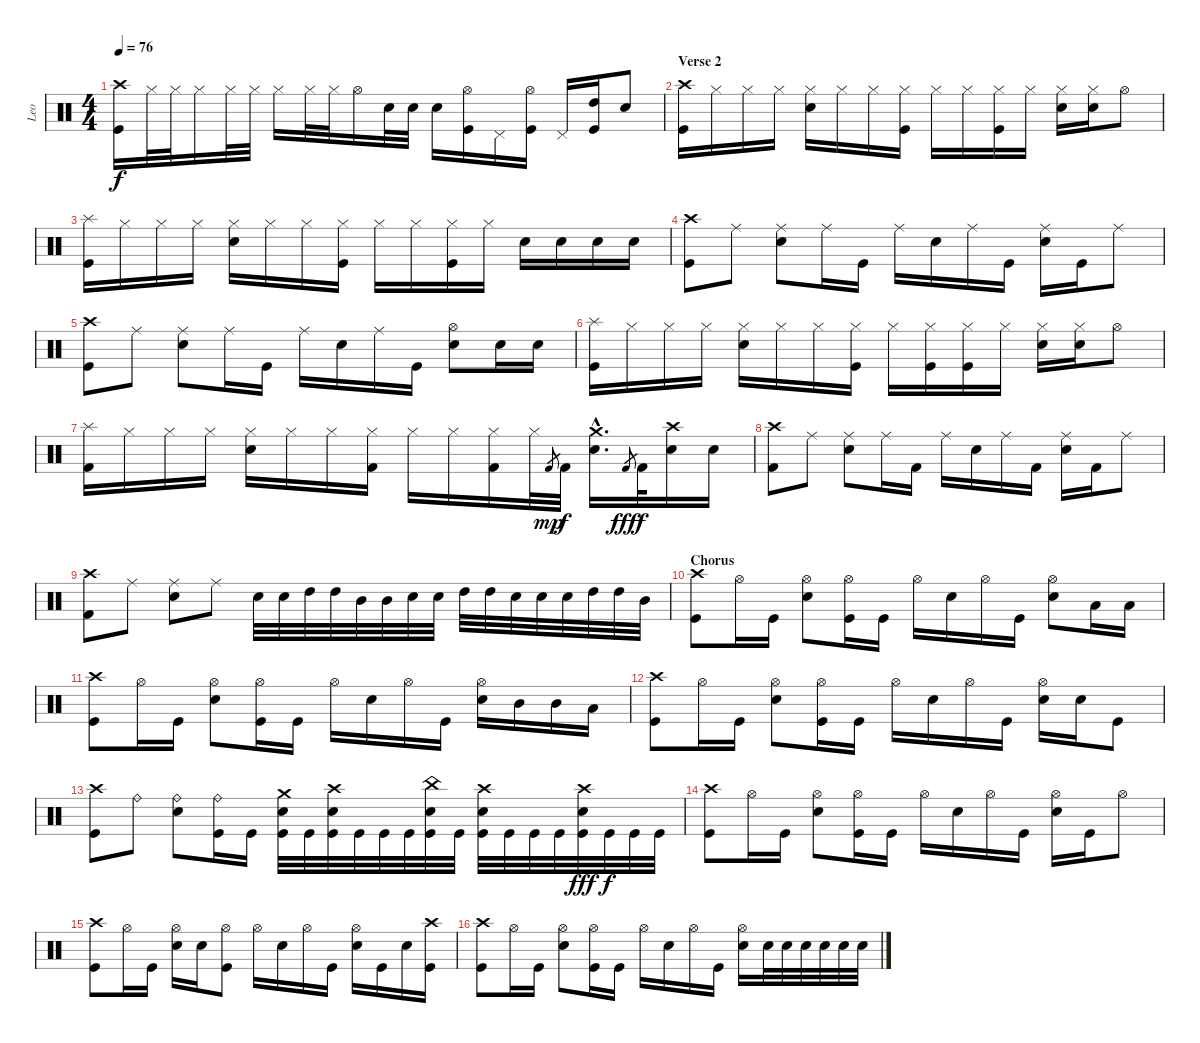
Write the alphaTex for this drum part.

\track ("Leo" "Leo") {instrument percussion}
\staff {score}
\articulation defaults
\ts (4 4)
\tempo 76
\clef neutral
\ks c
("Crash high (hit)" "Kick (hit)").16{dy f} "Hi-Hat (closed)".32 "Hi-Hat (closed)".32 "Hi-Hat (closed)".16 "Hi-Hat (closed)".32 "Hi-Hat (closed)".32 "Hi-Hat (closed)".16 "Hi-Hat (closed)".32 "Hi-Hat (closed)".32 "Hi-Hat (open)".16 "Electric Snare (hit)".32 "Electric Snare (hit)".32 "Electric Snare (hit)".16 ("Hi-Hat (open)" "Kick (hit)").16 "Pedal Hi-Hat (hit)".16 ("Hi-Hat (open)" "Kick (hit)").16 "Pedal Hi-Hat (hit)".16 ("High Tom (hit)" "Kick (hit)").16 "Electric Snare (hit)".8 |
\section ("" "Verse 2")
("Crash high (hit)" "Kick (hit)").16 "Hi-Hat (closed)".16 "Hi-Hat (closed)".16 "Hi-Hat (closed)".16 ("Hi-Hat (closed)" "Electric Snare (hit)").16 "Hi-Hat (closed)".16 "Hi-Hat (closed)".16 ("Hi-Hat (closed)" "Kick (hit)").16 "Hi-Hat (closed)".16 "Hi-Hat (closed)".16 ("Hi-Hat (closed)" "Kick (hit)").16 "Hi-Hat (closed)".16 ("Hi-Hat (closed)" "Electric Snare (hit)").16 ("Hi-Hat (closed)" "Electric Snare (hit)").16 "Hi-Hat (open)".8 |
("Splash (hit)" "Kick (hit)").16 "Hi-Hat (closed)".16 "Hi-Hat (closed)".16 "Hi-Hat (closed)".16 ("Hi-Hat (closed)" "Electric Snare (hit)").16 "Hi-Hat (closed)".16 "Hi-Hat (closed)".16 ("Hi-Hat (closed)" "Kick (hit)").16 "Hi-Hat (closed)".16 "Hi-Hat (closed)".16 ("Hi-Hat (closed)" "Kick (hit)").16 "Hi-Hat (closed)".16 "Electric Snare (hit)".16 "Electric Snare (hit)".16 "Electric Snare (hit)".16 "Electric Snare (hit)".16 |
("Crash high (hit)" "Kick (hit)").8 "Ride (middle)".8 ("Ride (middle)" "Electric Snare (hit)").8 "Ride (middle)".16 "Kick (hit)".16 "Ride (middle)".16 "Electric Snare (hit)".16 "Ride (middle)".16 "Kick (hit)".16 ("Ride (middle)" "Electric Snare (hit)").16 "Kick (hit)".16 "Ride (middle)".8 |
("Crash high (hit)" "Kick (hit)").8 "Ride (middle)".8 ("Ride (middle)" "Electric Snare (hit)").8 "Ride (middle)".16 "Kick (hit)".16 "Ride (middle)".16 "Electric Snare (hit)".16 "Ride (middle)".16 "Kick (hit)".16 ("Hi-Hat (open)" "Electric Snare (hit)").8 "Electric Snare (hit)".16 "Electric Snare (hit)".16 |
("Splash (hit)" "Kick (hit)").16 "Hi-Hat (closed)".16 "Hi-Hat (closed)".16 "Hi-Hat (closed)".16 ("Hi-Hat (closed)" "Electric Snare (hit)").16 "Hi-Hat (closed)".16 "Hi-Hat (closed)".16 ("Hi-Hat (closed)" "Kick (hit)").16 "Hi-Hat (closed)".16 ("Hi-Hat (closed)" "Kick (hit)").16 ("Hi-Hat (closed)" "Kick (hit)").16 "Hi-Hat (closed)".16 ("Hi-Hat (closed)" "Electric Snare (hit)").16 ("Hi-Hat (closed)" "Electric Snare (hit)").16 "Hi-Hat (open)".8 |
("Splash (hit)" "Kick (hit) 2").16 "Hi-Hat (closed)".16 "Hi-Hat (closed)".16 "Hi-Hat (closed)".16 ("Hi-Hat (closed)" "Electric Snare (hit)").16 "Hi-Hat (closed)".16 "Hi-Hat (closed)".16 ("Hi-Hat (closed)" "Kick (hit) 2").16 "Hi-Hat (closed)".16 "Hi-Hat (closed)".16 ("Hi-Hat (closed)" "Kick (hit) 2").16 "Hi-Hat (closed)".32 "Kick (hit) 2".8{gr dy mp} "Kick (hit) 2".32{dy f} ("Crash medium (hit)"{hac} "Electric Snare (hit)").16{d} "Kick (hit) 2".8{gr dy fff} "Kick (hit) 2".32{dy f} ("Crash high (hit)" "Electric Snare (hit)").16 "Electric Snare (hit)".16 |
("Crash high (hit)" "Kick (hit) 2").8 "Ride (middle)".8 ("Ride (middle)" "Electric Snare (hit)").8 "Ride (middle)".16 "Kick (hit) 2".16 "Ride (middle)".16 "Electric Snare (hit)".16 "Ride (middle)".16 "Kick (hit) 2".16 ("Ride (middle)" "Electric Snare (hit)").16 "Kick (hit) 2".16 "Ride (middle)".8 |
("Crash high (hit)" "Kick (hit) 2").8 "Ride (middle)".8 ("Ride (middle)" "Electric Snare (hit)").8 "Ride (middle)".8 "Electric Snare (hit)".32 "Electric Snare (hit)".32 "High Tom (hit)".32 "High Tom (hit)".32 "Mid Tom (hit)".32 "Mid Tom (hit)".32 "Electric Snare (hit)".32 "Electric Snare (hit)".32 "High Tom (hit)".32 "High Tom (hit)".32 "Electric Snare (hit)".32 "Electric Snare (hit)".32 "Electric Snare (hit)".32 "High Tom (hit)".32 "High Tom (hit)".32 "Mid Tom (hit)".32 |
\section ("" "Chorus")
("Crash high (hit)" "Kick (hit)").8 "Hi-Hat (open)".16 "Kick (hit)".16 ("Hi-Hat (open)" "Electric Snare (hit)").8 ("Hi-Hat (open)" "Kick (hit)").16 "Kick (hit)".16 "Hi-Hat (open)".16 "Electric Snare (hit)".16 "Hi-Hat (open)".16 "Kick (hit)".16 ("Hi-Hat (open)" "Electric Snare (hit)").8 "Low Tom (hit)".16 "Low Tom (hit)".16 |
("Crash high (hit)" "Kick (hit)").8 "Hi-Hat (open)".16 "Kick (hit)".16 ("Hi-Hat (open)" "Electric Snare (hit)").8 ("Hi-Hat (open)" "Kick (hit)").16 "Kick (hit)".16 "Hi-Hat (open)".16 "Electric Snare (hit)".16 "Hi-Hat (open)".16 "Kick (hit)".16 ("Hi-Hat (open)" "Electric Snare (hit)").16 "Mid Tom (hit)".16 "Mid Tom (hit)".16 "Low Tom (hit)".16 |
("Crash high (hit)" "Kick (hit)").8 "Hi-Hat (open)".16 "Kick (hit)".16 ("Hi-Hat (open)" "Electric Snare (hit)").8 ("Hi-Hat (open)" "Kick (hit)").16 "Kick (hit)".16 "Hi-Hat (open)".16 "Electric Snare (hit)".16 "Hi-Hat (open)".16 "Kick (hit)".16 ("Hi-Hat (open)" "Electric Snare (hit)").16 "Electric Snare (hit)".16 "Kick (hit)".8 |
("Crash high (hit)" "Kick (hit)").8 "Ride (bell)".8 ("Ride (bell)" "Electric Snare (hit)").8 ("Ride (bell)" "Kick (hit)").16 "Kick (hit)".16 ("Crash medium (hit)" "Electric Snare (hit)" "Kick (hit)").32 "Kick (hit)".32 ("Crash high (hit)" "Electric Snare (hit)" "Kick (hit)").32 "Kick (hit)".32 "Kick (hit)".32 "Kick (hit)".32 ("China (hit)" "Electric Snare (hit)" "Kick (hit)").32 "Kick (hit)".32 ("Crash high (hit)" "Electric Snare (hit)" "Kick (hit)").32 "Kick (hit)".32 "Kick (hit)".32 "Kick (hit)".32 ("Crash high (hit)" "Electric Snare (hit)" "Kick (hit)").32{dy fff} "Kick (hit)".32{dy f} "Kick (hit)".32 "Kick (hit)".32 |
("Crash high (hit)" "Kick (hit)").8 "Hi-Hat (open)".16 "Kick (hit)".16 ("Hi-Hat (open)" "Electric Snare (hit)").8 ("Hi-Hat (open)" "Kick (hit)").16 "Kick (hit)".16 "Hi-Hat (open)".16 "Electric Snare (hit)".16 "Hi-Hat (open)".16 "Kick (hit)".16 ("Hi-Hat (open)" "Electric Snare (hit)").16 "Kick (hit)".16 "Hi-Hat (open)".8 |
("Crash high (hit)" "Kick (hit)").8 "Hi-Hat (open)".16 "Kick (hit)".16 ("Hi-Hat (open)" "Electric Snare (hit)").16 "Electric Snare (hit)".16 ("Hi-Hat (open)" "Kick (hit)").8 "Hi-Hat (open)".16 "Electric Snare (hit)".16 "Hi-Hat (open)".16 "Kick (hit)".16 ("Hi-Hat (open)" "Electric Snare (hit)").16 "Kick (hit)".16 "Electric Snare (hit)".16 ("Crash high (hit)" "Kick (hit)").16 |
("Crash high (hit)" "Kick (hit)").8 "Hi-Hat (open)".16 "Kick (hit)".16 ("Hi-Hat (open)" "Electric Snare (hit)").8 ("Hi-Hat (open)" "Kick (hit)").16 "Kick (hit)".16 "Hi-Hat (open)".16 "Electric Snare (hit)".16 "Hi-Hat (open)".16 "Kick (hit)".16 ("Hi-Hat (open)" "Electric Snare (hit)").16 "Electric Snare (hit)".32 "Electric Snare (hit)".32 "Electric Snare (hit)".32 "Electric Snare (hit)".32 "Electric Snare (hit)".32 "Electric Snare (hit)".32
